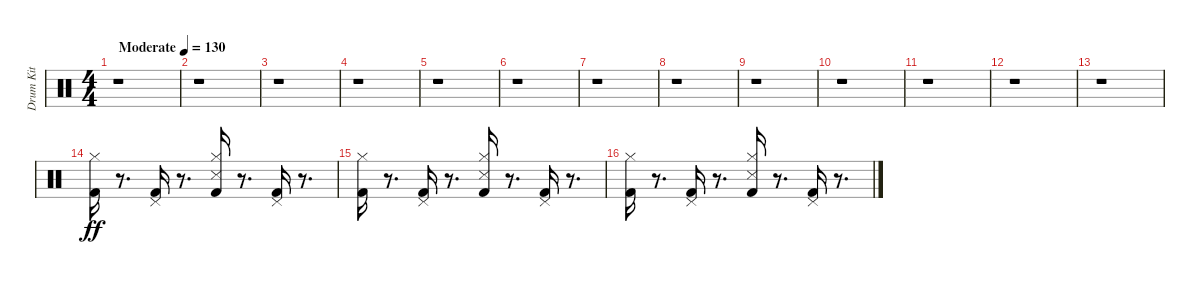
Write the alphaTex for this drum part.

\track ("Drum Kit" "Drum Kit") {instrument percussion}
\staff {score}
\articulation defaults
\ts (4 4)
\tempo (130 "Moderate")
\clef neutral
\ks c
r.1{dy ff} |
r.1 |
r.1 |
r.1 |
r.1 |
r.1 |
r.1 |
r.1 |
r.1 |
r.1 |
r.1 |
r.1 |
r.1 |
("Kick (hit) 2" "Hi-Hat (closed)").16 r.8{d} ("Kick (hit) 2" "Pedal Hi-Hat (hit)").16 r.8{d} ("Kick (hit) 2" "Snare (side stick) 3" "Hi-Hat (closed)").16 r.8{d} ("Kick (hit) 2" "Pedal Hi-Hat (hit)").16 r.8{d} |
("Kick (hit) 2" "Hi-Hat (closed)").16 r.8{d} ("Kick (hit) 2" "Pedal Hi-Hat (hit)").16 r.8{d} ("Kick (hit) 2" "Snare (side stick) 3" "Hi-Hat (closed)").16 r.8{d} ("Kick (hit) 2" "Pedal Hi-Hat (hit)").16 r.8{d} |
("Kick (hit) 2" "Hi-Hat (closed)").16 r.8{d} ("Kick (hit) 2" "Pedal Hi-Hat (hit)").16 r.8{d} ("Kick (hit) 2" "Snare (side stick) 3" "Hi-Hat (closed)").16 r.8{d} ("Kick (hit) 2" "Pedal Hi-Hat (hit)").16 r.8{d}
